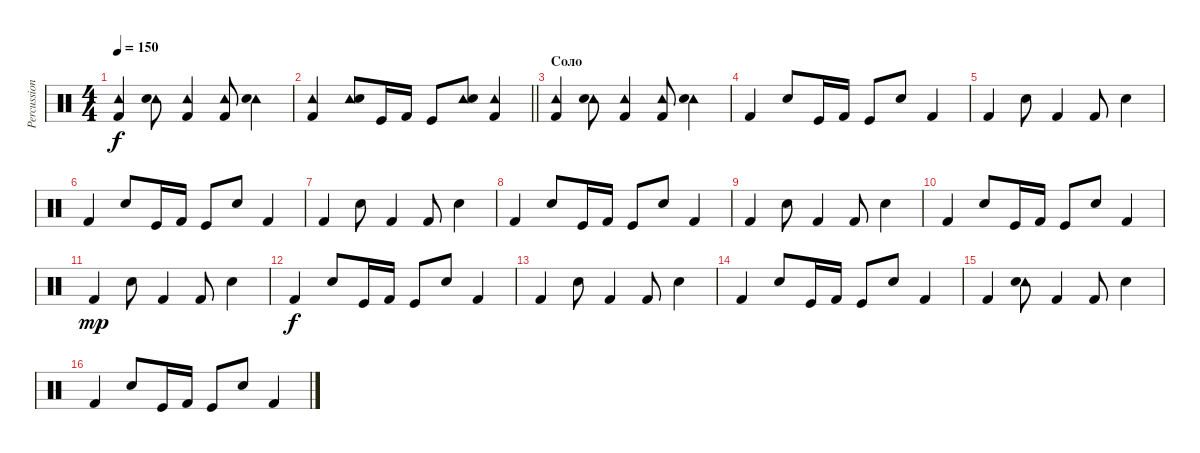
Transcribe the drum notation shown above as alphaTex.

\track ("Percussion" "Percussion") {instrument percussion bank 3}
\staff {score}
\articulation defaults
\ts (4 4)
\tempo 150
\clef neutral
\ks c
("Tambourine (hit)" "Kick (hit) 2").4{dy f} ("Tambourine (hit)" "Snare (hit) 2").8 ("Tambourine (hit)" "Kick (hit) 2").4 ("Tambourine (hit)" "Kick (hit) 2").8 ("Tambourine (hit)" "Snare (hit) 2").4 |
\barLineRight lightlight
("Tambourine (hit)" "Kick (hit) 2").4 ("Tambourine (hit)" "Snare (hit) 2").8 "Kick (hit)".16 "Kick (hit) 2".16 "Kick (hit)".8 ("Tambourine (hit)" "Snare (hit) 2").8 ("Tambourine (hit)" "Kick (hit) 2").4 |
\section ("" "Соло")
("Tambourine (hit)" "Kick (hit) 2").4 ("Tambourine (hit)" "Snare (hit) 2").8 ("Tambourine (hit)" "Kick (hit) 2").4 ("Tambourine (hit)" "Kick (hit) 2").8 ("Tambourine (hit)" "Snare (hit) 2").4 |
"Kick (hit) 2".4 "Snare (hit) 2".8 "Kick (hit)".16 "Kick (hit) 2".16 "Kick (hit)".8 "Snare (hit) 2".8 "Kick (hit) 2".4 |
"Kick (hit) 2".4 "Snare (hit) 2".8 "Kick (hit) 2".4 "Kick (hit) 2".8 "Snare (hit) 2".4 |
"Kick (hit) 2".4 "Snare (hit) 2".8 "Kick (hit)".16 "Kick (hit) 2".16 "Kick (hit)".8 "Snare (hit) 2".8 "Kick (hit) 2".4 |
"Kick (hit) 2".4 "Snare (hit) 2".8 "Kick (hit) 2".4 "Kick (hit) 2".8 "Snare (hit) 2".4 |
"Kick (hit) 2".4 "Snare (hit) 2".8 "Kick (hit)".16 "Kick (hit) 2".16 "Kick (hit)".8 "Snare (hit) 2".8 "Kick (hit) 2".4 |
"Kick (hit) 2".4 "Snare (hit) 2".8 "Kick (hit) 2".4 "Kick (hit) 2".8 "Snare (hit) 2".4 |
"Kick (hit) 2".4 "Snare (hit) 2".8 "Kick (hit)".16 "Kick (hit) 2".16 "Kick (hit)".8 "Snare (hit) 2".8 "Kick (hit) 2".4 |
"Kick (hit) 2".4{dy mp} "Snare (hit) 2".8 "Kick (hit) 2".4 "Kick (hit) 2".8 "Snare (hit) 2".4 |
"Kick (hit) 2".4{dy f} "Snare (hit) 2".8 "Kick (hit)".16 "Kick (hit) 2".16 "Kick (hit)".8 "Snare (hit) 2".8 "Kick (hit) 2".4 |
"Kick (hit) 2".4 "Snare (hit) 2".8 "Kick (hit) 2".4 "Kick (hit) 2".8 "Snare (hit) 2".4 |
"Kick (hit) 2".4 "Snare (hit) 2".8 "Kick (hit)".16 "Kick (hit) 2".16 "Kick (hit)".8 "Snare (hit) 2".8 "Kick (hit) 2".4 |
"Kick (hit) 2".4 ("Tambourine (hit)" "Snare (hit) 2").8 "Kick (hit) 2".4 "Kick (hit) 2".8 "Snare (hit) 2".4 |
"Kick (hit) 2".4 "Snare (hit) 2".8 "Kick (hit)".16 "Kick (hit) 2".16 "Kick (hit)".8 "Snare (hit) 2".8 "Kick (hit) 2".4
